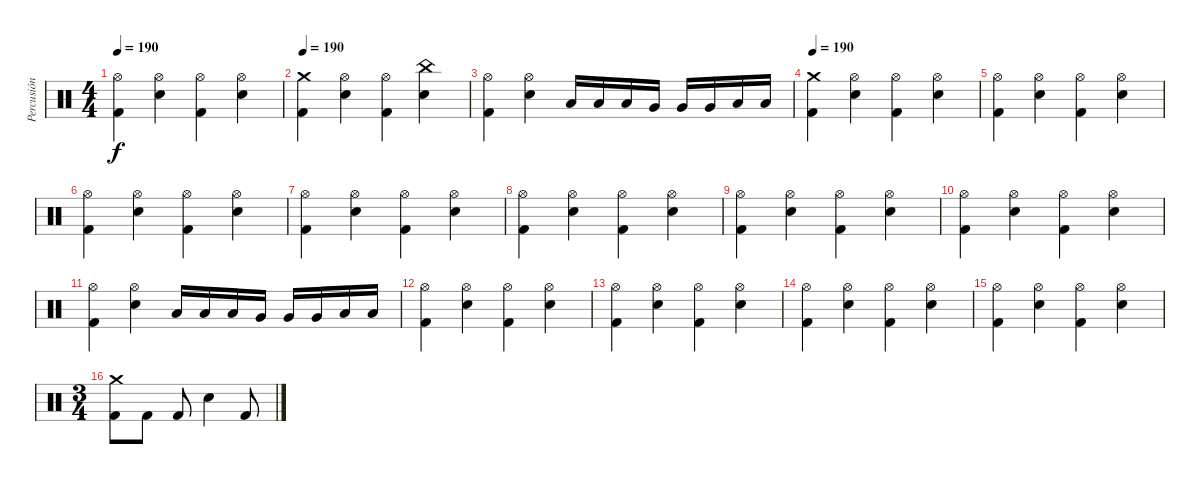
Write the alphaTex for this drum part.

\track ("Percusión" "Percusión") {instrument percussion}
\staff {score}
\articulation defaults
\ts (4 4)
\tempo 190
\clef neutral
\ks c
("Hi-Hat (open)" "Kick (hit) 2").4{dy f} ("Hi-Hat (open)" "Electric Snare (hit)").4 ("Hi-Hat (open)" "Kick (hit) 2").4 ("Hi-Hat (open)" "Electric Snare (hit)").4 |
\tempo 190
("Crash medium (hit)" "Kick (hit) 2").4 ("Hi-Hat (open)" "Electric Snare (hit)").4 ("Hi-Hat (open)" "Kick (hit) 2").4 ("China (hit)" "Electric Snare (hit)").4 |
("Hi-Hat (open)" "Kick (hit) 2").4 ("Hi-Hat (open)" "Electric Snare (hit)").4 "Low Tom (hit)".16 "Low Tom (hit)".16 "Low Tom (hit)".16 "Very Low Tom (hit)".16 "Very Low Tom (hit)".16 "Very Low Tom (hit)".16 "Low Floor Tom (hit)".16 "Low Floor Tom (hit)".16 |
\tempo 190
("Crash medium (hit)" "Kick (hit) 2").4 ("Hi-Hat (open)" "Electric Snare (hit)").4 ("Hi-Hat (open)" "Kick (hit) 2").4 ("Hi-Hat (open)" "Electric Snare (hit)").4 |
("Hi-Hat (open)" "Kick (hit) 2").4 ("Hi-Hat (open)" "Electric Snare (hit)").4 ("Hi-Hat (open)" "Kick (hit) 2").4 ("Hi-Hat (open)" "Electric Snare (hit)").4 |
("Hi-Hat (open)" "Kick (hit) 2").4 ("Hi-Hat (open)" "Electric Snare (hit)").4 ("Hi-Hat (open)" "Kick (hit) 2").4 ("Hi-Hat (open)" "Electric Snare (hit)").4 |
("Hi-Hat (open)" "Kick (hit) 2").4 ("Hi-Hat (open)" "Electric Snare (hit)").4 ("Hi-Hat (open)" "Kick (hit) 2").4 ("Hi-Hat (open)" "Electric Snare (hit)").4 |
("Hi-Hat (open)" "Kick (hit) 2").4 ("Hi-Hat (open)" "Electric Snare (hit)").4 ("Hi-Hat (open)" "Kick (hit) 2").4 ("Hi-Hat (open)" "Electric Snare (hit)").4 |
("Hi-Hat (open)" "Kick (hit) 2").4 ("Hi-Hat (open)" "Electric Snare (hit)").4 ("Hi-Hat (open)" "Kick (hit) 2").4 ("Hi-Hat (open)" "Electric Snare (hit)").4 |
("Hi-Hat (open)" "Kick (hit) 2").4 ("Hi-Hat (open)" "Electric Snare (hit)").4 ("Hi-Hat (open)" "Kick (hit) 2").4 ("Hi-Hat (open)" "Electric Snare (hit)").4 |
("Hi-Hat (open)" "Kick (hit) 2").4 ("Hi-Hat (open)" "Electric Snare (hit)").4 "Low Tom (hit)".16 "Low Tom (hit)".16 "Low Tom (hit)".16 "Very Low Tom (hit)".16 "Very Low Tom (hit)".16 "Very Low Tom (hit)".16 "Low Floor Tom (hit)".16 "Low Floor Tom (hit)".16 |
("Hi-Hat (open)" "Kick (hit) 2").4 ("Hi-Hat (open)" "Electric Snare (hit)").4 ("Hi-Hat (open)" "Kick (hit) 2").4 ("Hi-Hat (open)" "Electric Snare (hit)").4 |
("Hi-Hat (open)" "Kick (hit) 2").4 ("Hi-Hat (open)" "Electric Snare (hit)").4 ("Hi-Hat (open)" "Kick (hit) 2").4 ("Hi-Hat (open)" "Electric Snare (hit)").4 |
("Hi-Hat (open)" "Kick (hit) 2").4 ("Hi-Hat (open)" "Electric Snare (hit)").4 ("Hi-Hat (open)" "Kick (hit) 2").4 ("Hi-Hat (open)" "Electric Snare (hit)").4 |
("Hi-Hat (open)" "Kick (hit) 2").4 ("Hi-Hat (open)" "Electric Snare (hit)").4 ("Hi-Hat (open)" "Kick (hit) 2").4 ("Hi-Hat (open)" "Electric Snare (hit)").4 |
\ts (3 4)
("Crash medium (hit)" "Kick (hit) 2").8 "Kick (hit) 2".8 "Kick (hit) 2".8 "Electric Snare (hit)".4 "Kick (hit) 2".8
